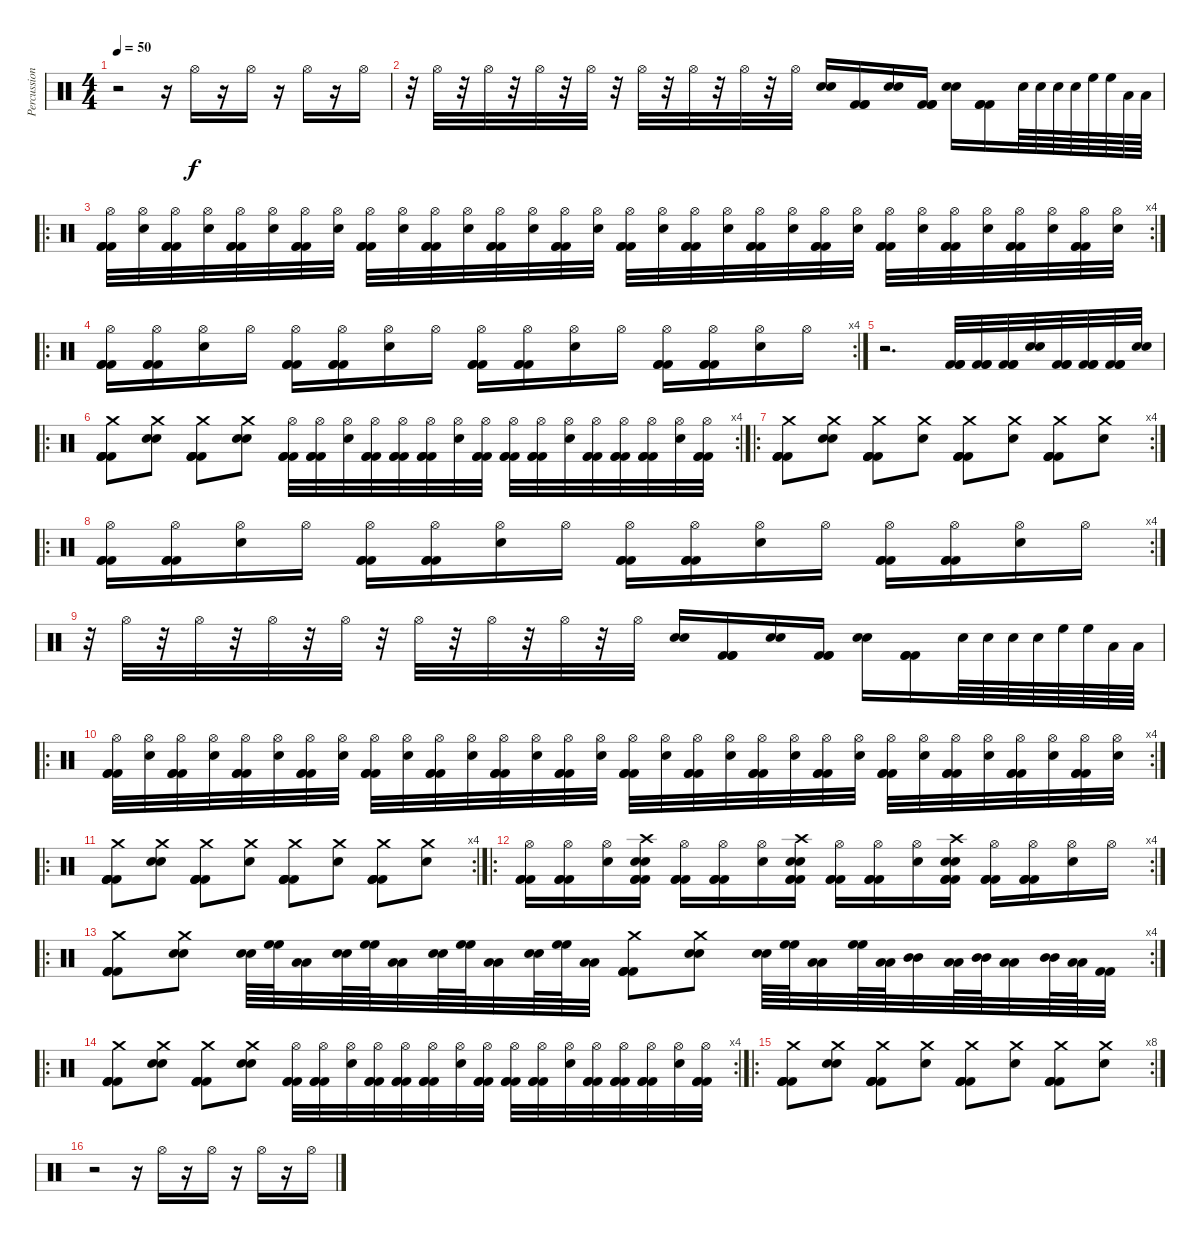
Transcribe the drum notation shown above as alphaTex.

\track ("Percussion" "Percussion") {instrument percussion}
\staff {score}
\articulation defaults
\ts (4 4)
\tempo 50
\clef neutral
\ks c
r.2{dy f} r.16 "Hi-Hat (open)".16 r.16 "Hi-Hat (open)".16 r.16 "Hi-Hat (open)".16 r.16 "Hi-Hat (open)".16 |
r.32 "Hi-Hat (open)".32 r.32 "Hi-Hat (open)".32 r.32 "Hi-Hat (open)".32 r.32 "Hi-Hat (open)".32 r.32 "Hi-Hat (open)".32 r.32 "Hi-Hat (open)".32 r.32 "Hi-Hat (open)".32 r.32 "Hi-Hat (open)".32 ("Snare (hit) 2" "Snare (hit) 2").16 ("Kick (hit) 2" "Kick (hit) 2" "Kick (hit) 2").16 ("Snare (hit) 2" "Snare (hit) 2").16 ("Kick (hit) 2" "Kick (hit) 2" "Kick (hit) 2").16 ("Snare (hit) 2" "Snare (hit) 2").16 ("Kick (hit) 2" "Kick (hit) 2" "Kick (hit) 2").16 "Snare (hit) 2".64 "Snare (hit) 2".64 "Snare (hit) 2".64 "Snare (hit) 2".64 "High Floor Tom (hit)".64 "High Floor Tom (hit)".64 "Low Tom (hit)".64 "Low Tom (hit)".64 |
\ro
\rc 4
("Hi-Hat (open)" "Kick (hit) 2" "Kick (hit) 2" "Kick (hit) 2").32 ("Hi-Hat (open)" "Snare (hit) 2").32 ("Hi-Hat (open)" "Kick (hit) 2" "Kick (hit) 2" "Kick (hit) 2").32 ("Hi-Hat (open)" "Snare (hit) 2").32 ("Hi-Hat (open)" "Kick (hit) 2" "Kick (hit) 2" "Kick (hit) 2").32 ("Hi-Hat (open)" "Snare (hit) 2").32 ("Hi-Hat (open)" "Kick (hit) 2" "Kick (hit) 2" "Kick (hit) 2").32 ("Hi-Hat (open)" "Snare (hit) 2").32 ("Hi-Hat (open)" "Kick (hit) 2" "Kick (hit) 2" "Kick (hit) 2").32 ("Hi-Hat (open)" "Snare (hit) 2").32 ("Hi-Hat (open)" "Kick (hit) 2" "Kick (hit) 2" "Kick (hit) 2").32 ("Hi-Hat (open)" "Snare (hit) 2").32 ("Hi-Hat (open)" "Kick (hit) 2" "Kick (hit) 2" "Kick (hit) 2").32 ("Hi-Hat (open)" "Snare (hit) 2").32 ("Hi-Hat (open)" "Kick (hit) 2" "Kick (hit) 2" "Kick (hit) 2").32 ("Hi-Hat (open)" "Snare (hit) 2").32 ("Hi-Hat (open)" "Kick (hit) 2" "Kick (hit) 2" "Kick (hit) 2").32 ("Hi-Hat (open)" "Snare (hit) 2").32 ("Hi-Hat (open)" "Kick (hit) 2" "Kick (hit) 2" "Kick (hit) 2").32 ("Hi-Hat (open)" "Snare (hit) 2").32 ("Hi-Hat (open)" "Kick (hit) 2" "Kick (hit) 2" "Kick (hit) 2").32 ("Hi-Hat (open)" "Snare (hit) 2").32 ("Hi-Hat (open)" "Kick (hit) 2" "Kick (hit) 2" "Kick (hit) 2").32 ("Hi-Hat (open)" "Snare (hit) 2").32 ("Hi-Hat (open)" "Kick (hit) 2" "Kick (hit) 2" "Kick (hit) 2").32 ("Hi-Hat (open)" "Snare (hit) 2").32 ("Hi-Hat (open)" "Kick (hit) 2" "Kick (hit) 2" "Kick (hit) 2").32 ("Hi-Hat (open)" "Snare (hit) 2").32 ("Hi-Hat (open)" "Kick (hit) 2" "Kick (hit) 2" "Kick (hit) 2").32 ("Hi-Hat (open)" "Snare (hit) 2").32 ("Hi-Hat (open)" "Kick (hit) 2" "Kick (hit) 2" "Kick (hit) 2").32 ("Hi-Hat (open)" "Snare (hit) 2").32 |
\ro
\rc 4
("Hi-Hat (open)" "Kick (hit) 2" "Kick (hit) 2" "Kick (hit) 2").16 ("Hi-Hat (open)" "Kick (hit) 2" "Kick (hit) 2" "Kick (hit) 2").16 ("Hi-Hat (open)" "Snare (hit) 2").16 "Hi-Hat (open)".16 ("Hi-Hat (open)" "Kick (hit) 2" "Kick (hit) 2" "Kick (hit) 2").16 ("Hi-Hat (open)" "Kick (hit) 2" "Kick (hit) 2" "Kick (hit) 2").16 ("Hi-Hat (open)" "Snare (hit) 2").16 "Hi-Hat (open)".16 ("Hi-Hat (open)" "Kick (hit) 2" "Kick (hit) 2" "Kick (hit) 2").16 ("Hi-Hat (open)" "Kick (hit) 2" "Kick (hit) 2" "Kick (hit) 2").16 ("Hi-Hat (open)" "Snare (hit) 2").16 "Hi-Hat (open)".16 ("Hi-Hat (open)" "Kick (hit) 2" "Kick (hit) 2" "Kick (hit) 2").16 ("Hi-Hat (open)" "Kick (hit) 2" "Kick (hit) 2" "Kick (hit) 2").16 ("Hi-Hat (open)" "Snare (hit) 2").16 "Hi-Hat (open)".16 |
r.2{d} ("Kick (hit) 2" "Kick (hit) 2" "Kick (hit) 2").32 ("Kick (hit) 2" "Kick (hit) 2" "Kick (hit) 2").32 ("Kick (hit) 2" "Kick (hit) 2" "Kick (hit) 2").32 ("Snare (hit) 2" "Snare (hit) 2").32 ("Kick (hit) 2" "Kick (hit) 2" "Kick (hit) 2").32 ("Kick (hit) 2" "Kick (hit) 2" "Kick (hit) 2").32 ("Kick (hit) 2" "Kick (hit) 2" "Kick (hit) 2").32 ("Snare (hit) 2" "Snare (hit) 2").32 |
\ro
\rc 4
("Crash medium (hit)" "Kick (hit) 2" "Kick (hit) 2" "Kick (hit) 2" "Kick (hit) 2").8 ("Crash medium (hit)" "Snare (hit) 2" "Snare (hit) 2").8 ("Crash medium (hit)" "Kick (hit) 2" "Kick (hit) 2" "Kick (hit) 2" "Kick (hit) 2").8 ("Crash medium (hit)" "Snare (hit) 2" "Snare (hit) 2").8 ("Hi-Hat (open)" "Kick (hit) 2" "Kick (hit) 2" "Kick (hit) 2").32 ("Hi-Hat (open)" "Kick (hit) 2" "Kick (hit) 2" "Kick (hit) 2").32 ("Hi-Hat (open)" "Snare (hit) 2").32 ("Hi-Hat (open)" "Kick (hit) 2" "Kick (hit) 2" "Kick (hit) 2").32 ("Hi-Hat (open)" "Kick (hit) 2" "Kick (hit) 2" "Kick (hit) 2").32 ("Hi-Hat (open)" "Kick (hit) 2" "Kick (hit) 2" "Kick (hit) 2").32 ("Hi-Hat (open)" "Snare (hit) 2").32 ("Hi-Hat (open)" "Kick (hit) 2" "Kick (hit) 2" "Kick (hit) 2").32 ("Hi-Hat (open)" "Kick (hit) 2" "Kick (hit) 2" "Kick (hit) 2").32 ("Hi-Hat (open)" "Kick (hit) 2" "Kick (hit) 2" "Kick (hit) 2").32 ("Hi-Hat (open)" "Snare (hit) 2").32 ("Hi-Hat (open)" "Kick (hit) 2" "Kick (hit) 2" "Kick (hit) 2").32 ("Hi-Hat (open)" "Kick (hit) 2" "Kick (hit) 2" "Kick (hit) 2").32 ("Hi-Hat (open)" "Kick (hit) 2" "Kick (hit) 2" "Kick (hit) 2").32 ("Hi-Hat (open)" "Snare (hit) 2").32 ("Hi-Hat (open)" "Kick (hit) 2" "Kick (hit) 2" "Kick (hit) 2").32 |
\ro
\rc 4
("Crash medium (hit)" "Kick (hit) 2" "Kick (hit) 2" "Kick (hit) 2" "Kick (hit) 2").8 ("Crash medium (hit)" "Snare (hit) 2" "Snare (hit) 2").8 ("Crash medium (hit)" "Kick (hit) 2" "Kick (hit) 2" "Kick (hit) 2" "Kick (hit) 2").8 ("Crash medium (hit)" "Snare (hit) 2").8 ("Crash medium (hit)" "Kick (hit) 2" "Kick (hit) 2" "Kick (hit) 2" "Kick (hit) 2").8 ("Crash medium (hit)" "Snare (hit) 2").8 ("Crash medium (hit)" "Kick (hit) 2" "Kick (hit) 2" "Kick (hit) 2" "Kick (hit) 2").8 ("Crash medium (hit)" "Snare (hit) 2").8 |
\ro
\rc 4
("Hi-Hat (open)" "Kick (hit) 2" "Kick (hit) 2" "Kick (hit) 2").16 ("Hi-Hat (open)" "Kick (hit) 2" "Kick (hit) 2" "Kick (hit) 2").16 ("Hi-Hat (open)" "Snare (hit) 2").16 "Hi-Hat (open)".16 ("Hi-Hat (open)" "Kick (hit) 2" "Kick (hit) 2" "Kick (hit) 2").16 ("Hi-Hat (open)" "Kick (hit) 2" "Kick (hit) 2" "Kick (hit) 2").16 ("Hi-Hat (open)" "Snare (hit) 2").16 "Hi-Hat (open)".16 ("Hi-Hat (open)" "Kick (hit) 2" "Kick (hit) 2" "Kick (hit) 2").16 ("Hi-Hat (open)" "Kick (hit) 2" "Kick (hit) 2" "Kick (hit) 2").16 ("Hi-Hat (open)" "Snare (hit) 2").16 "Hi-Hat (open)".16 ("Hi-Hat (open)" "Kick (hit) 2" "Kick (hit) 2" "Kick (hit) 2").16 ("Hi-Hat (open)" "Kick (hit) 2" "Kick (hit) 2" "Kick (hit) 2").16 ("Hi-Hat (open)" "Snare (hit) 2").16 "Hi-Hat (open)".16 |
r.32 "Hi-Hat (open)".32 r.32 "Hi-Hat (open)".32 r.32 "Hi-Hat (open)".32 r.32 "Hi-Hat (open)".32 r.32 "Hi-Hat (open)".32 r.32 "Hi-Hat (open)".32 r.32 "Hi-Hat (open)".32 r.32 "Hi-Hat (open)".32 ("Snare (hit) 2" "Snare (hit) 2").16 ("Kick (hit) 2" "Kick (hit) 2" "Kick (hit) 2").16 ("Snare (hit) 2" "Snare (hit) 2").16 ("Kick (hit) 2" "Kick (hit) 2" "Kick (hit) 2").16 ("Snare (hit) 2" "Snare (hit) 2").16 ("Kick (hit) 2" "Kick (hit) 2" "Kick (hit) 2").16 "Snare (hit) 2".64 "Snare (hit) 2".64 "Snare (hit) 2".64 "Snare (hit) 2".64 "High Floor Tom (hit)".64 "High Floor Tom (hit)".64 "Low Tom (hit)".64 "Low Tom (hit)".64 |
\ro
\rc 4
("Hi-Hat (open)" "Kick (hit) 2" "Kick (hit) 2" "Kick (hit) 2").32 ("Hi-Hat (open)" "Snare (hit) 2").32 ("Hi-Hat (open)" "Kick (hit) 2" "Kick (hit) 2" "Kick (hit) 2").32 ("Hi-Hat (open)" "Snare (hit) 2").32 ("Hi-Hat (open)" "Kick (hit) 2" "Kick (hit) 2" "Kick (hit) 2").32 ("Hi-Hat (open)" "Snare (hit) 2").32 ("Hi-Hat (open)" "Kick (hit) 2" "Kick (hit) 2" "Kick (hit) 2").32 ("Hi-Hat (open)" "Snare (hit) 2").32 ("Hi-Hat (open)" "Kick (hit) 2" "Kick (hit) 2" "Kick (hit) 2").32 ("Hi-Hat (open)" "Snare (hit) 2").32 ("Hi-Hat (open)" "Kick (hit) 2" "Kick (hit) 2" "Kick (hit) 2").32 ("Hi-Hat (open)" "Snare (hit) 2").32 ("Hi-Hat (open)" "Kick (hit) 2" "Kick (hit) 2" "Kick (hit) 2").32 ("Hi-Hat (open)" "Snare (hit) 2").32 ("Hi-Hat (open)" "Kick (hit) 2" "Kick (hit) 2" "Kick (hit) 2").32 ("Hi-Hat (open)" "Snare (hit) 2").32 ("Hi-Hat (open)" "Kick (hit) 2" "Kick (hit) 2" "Kick (hit) 2").32 ("Hi-Hat (open)" "Snare (hit) 2").32 ("Hi-Hat (open)" "Kick (hit) 2" "Kick (hit) 2" "Kick (hit) 2").32 ("Hi-Hat (open)" "Snare (hit) 2").32 ("Hi-Hat (open)" "Kick (hit) 2" "Kick (hit) 2" "Kick (hit) 2").32 ("Hi-Hat (open)" "Snare (hit) 2").32 ("Hi-Hat (open)" "Kick (hit) 2" "Kick (hit) 2" "Kick (hit) 2").32 ("Hi-Hat (open)" "Snare (hit) 2").32 ("Hi-Hat (open)" "Kick (hit) 2" "Kick (hit) 2" "Kick (hit) 2").32 ("Hi-Hat (open)" "Snare (hit) 2").32 ("Hi-Hat (open)" "Kick (hit) 2" "Kick (hit) 2" "Kick (hit) 2").32 ("Hi-Hat (open)" "Snare (hit) 2").32 ("Hi-Hat (open)" "Kick (hit) 2" "Kick (hit) 2" "Kick (hit) 2").32 ("Hi-Hat (open)" "Snare (hit) 2").32 ("Hi-Hat (open)" "Kick (hit) 2" "Kick (hit) 2" "Kick (hit) 2").32 ("Hi-Hat (open)" "Snare (hit) 2").32 |
\ro
\rc 4
("Crash medium (hit)" "Kick (hit) 2" "Kick (hit) 2" "Kick (hit) 2" "Kick (hit) 2").8 ("Crash medium (hit)" "Snare (hit) 2" "Snare (hit) 2").8 ("Crash medium (hit)" "Kick (hit) 2" "Kick (hit) 2" "Kick (hit) 2" "Kick (hit) 2").8 ("Crash medium (hit)" "Snare (hit) 2").8 ("Crash medium (hit)" "Kick (hit) 2" "Kick (hit) 2" "Kick (hit) 2" "Kick (hit) 2").8 ("Crash medium (hit)" "Snare (hit) 2").8 ("Crash medium (hit)" "Kick (hit) 2" "Kick (hit) 2" "Kick (hit) 2" "Kick (hit) 2").8 ("Crash medium (hit)" "Snare (hit) 2").8 |
\ro
\rc 4
("Hi-Hat (open)" "Kick (hit) 2" "Kick (hit) 2" "Kick (hit) 2").16 ("Hi-Hat (open)" "Kick (hit) 2" "Kick (hit) 2" "Kick (hit) 2").16 ("Hi-Hat (open)" "Snare (hit) 2").16 ("Crash high (hit)" "Snare (hit) 2" "Snare (hit) 2" "Kick (hit) 2" "Kick (hit) 2" "Kick (hit) 2").16 ("Hi-Hat (open)" "Kick (hit) 2" "Kick (hit) 2" "Kick (hit) 2").16 ("Hi-Hat (open)" "Kick (hit) 2" "Kick (hit) 2" "Kick (hit) 2").16 ("Hi-Hat (open)" "Snare (hit) 2").16 ("Crash high (hit)" "Snare (hit) 2" "Snare (hit) 2" "Kick (hit) 2" "Kick (hit) 2" "Kick (hit) 2").16 ("Hi-Hat (open)" "Kick (hit) 2" "Kick (hit) 2" "Kick (hit) 2").16 ("Hi-Hat (open)" "Kick (hit) 2" "Kick (hit) 2" "Kick (hit) 2").16 ("Hi-Hat (open)" "Snare (hit) 2").16 ("Crash high (hit)" "Snare (hit) 2" "Snare (hit) 2" "Kick (hit) 2" "Kick (hit) 2" "Kick (hit) 2").16 ("Hi-Hat (open)" "Kick (hit) 2" "Kick (hit) 2" "Kick (hit) 2").16 ("Hi-Hat (open)" "Kick (hit) 2" "Kick (hit) 2" "Kick (hit) 2").16 ("Hi-Hat (open)" "Snare (hit) 2").16 "Hi-Hat (open)".16 |
\ro
\rc 4
("Crash medium (hit)" "Kick (hit) 2" "Kick (hit) 2" "Kick (hit) 2" "Kick (hit) 2").8 ("Crash medium (hit)" "Snare (hit) 2" "Snare (hit) 2").8 ("Snare (hit) 2" "Snare (hit) 2").64 ("High Floor Tom (hit)" "High Floor Tom (hit)").64 ("Low Tom (hit)" "Low Tom (hit)").32 ("Snare (hit) 2" "Snare (hit) 2").64 ("High Floor Tom (hit)" "High Floor Tom (hit)").64 ("Low Tom (hit)" "Low Tom (hit)").32 ("Snare (hit) 2" "Snare (hit) 2").64 ("High Floor Tom (hit)" "High Floor Tom (hit)").64 ("Low Tom (hit)" "Low Tom (hit)").32 ("Snare (hit) 2" "Snare (hit) 2").64 ("High Floor Tom (hit)" "High Floor Tom (hit)").64 ("Low Tom (hit)" "Low Tom (hit)").32 ("Crash medium (hit)" "Kick (hit) 2" "Kick (hit) 2" "Kick (hit) 2" "Kick (hit) 2").8 ("Crash medium (hit)" "Snare (hit) 2" "Snare (hit) 2").8 ("Snare (hit) 2" "Snare (hit) 2").64 ("High Floor Tom (hit)" "High Floor Tom (hit)").64 ("Low Tom (hit)" "Low Tom (hit)").32 ("High Floor Tom (hit)" "High Floor Tom (hit)").64 ("Low Tom (hit)" "Low Tom (hit)").64 ("Mid Tom (hit)" "Mid Tom (hit)").32 ("Low Tom (hit)" "Low Tom (hit)").64 ("Mid Tom (hit)" "Mid Tom (hit)").64 ("Low Floor Tom (hit)" "Low Floor Tom (hit)").32 ("Mid Tom (hit)" "Mid Tom (hit)").64 ("Low Floor Tom (hit)" "Low Floor Tom (hit)").64 ("Kick (hit) 2" "Kick (hit) 2").32 |
\ro
\rc 4
("Crash medium (hit)" "Kick (hit) 2" "Kick (hit) 2" "Kick (hit) 2" "Kick (hit) 2").8 ("Crash medium (hit)" "Snare (hit) 2" "Snare (hit) 2").8 ("Crash medium (hit)" "Kick (hit) 2" "Kick (hit) 2" "Kick (hit) 2" "Kick (hit) 2").8 ("Crash medium (hit)" "Snare (hit) 2" "Snare (hit) 2").8 ("Hi-Hat (open)" "Kick (hit) 2" "Kick (hit) 2" "Kick (hit) 2").32 ("Hi-Hat (open)" "Kick (hit) 2" "Kick (hit) 2" "Kick (hit) 2").32 ("Hi-Hat (open)" "Snare (hit) 2").32 ("Hi-Hat (open)" "Kick (hit) 2" "Kick (hit) 2" "Kick (hit) 2").32 ("Hi-Hat (open)" "Kick (hit) 2" "Kick (hit) 2" "Kick (hit) 2").32 ("Hi-Hat (open)" "Kick (hit) 2" "Kick (hit) 2" "Kick (hit) 2").32 ("Hi-Hat (open)" "Snare (hit) 2").32 ("Hi-Hat (open)" "Kick (hit) 2" "Kick (hit) 2" "Kick (hit) 2").32 ("Hi-Hat (open)" "Kick (hit) 2" "Kick (hit) 2" "Kick (hit) 2").32 ("Hi-Hat (open)" "Kick (hit) 2" "Kick (hit) 2" "Kick (hit) 2").32 ("Hi-Hat (open)" "Snare (hit) 2").32 ("Hi-Hat (open)" "Kick (hit) 2" "Kick (hit) 2" "Kick (hit) 2").32 ("Hi-Hat (open)" "Kick (hit) 2" "Kick (hit) 2" "Kick (hit) 2").32 ("Hi-Hat (open)" "Kick (hit) 2" "Kick (hit) 2" "Kick (hit) 2").32 ("Hi-Hat (open)" "Snare (hit) 2").32 ("Hi-Hat (open)" "Kick (hit) 2" "Kick (hit) 2" "Kick (hit) 2").32 |
\ro
\rc 8
("Crash medium (hit)" "Kick (hit) 2" "Kick (hit) 2" "Kick (hit) 2" "Kick (hit) 2").8 ("Crash medium (hit)" "Snare (hit) 2" "Snare (hit) 2").8 ("Crash medium (hit)" "Kick (hit) 2" "Kick (hit) 2" "Kick (hit) 2" "Kick (hit) 2").8 ("Crash medium (hit)" "Snare (hit) 2").8 ("Crash medium (hit)" "Kick (hit) 2" "Kick (hit) 2" "Kick (hit) 2" "Kick (hit) 2").8 ("Crash medium (hit)" "Snare (hit) 2").8 ("Crash medium (hit)" "Kick (hit) 2" "Kick (hit) 2" "Kick (hit) 2" "Kick (hit) 2").8 ("Crash medium (hit)" "Snare (hit) 2").8 |
r.2 r.16 "Hi-Hat (open)".16 r.16 "Hi-Hat (open)".16 r.16 "Hi-Hat (open)".16 r.16 "Hi-Hat (open)".16
